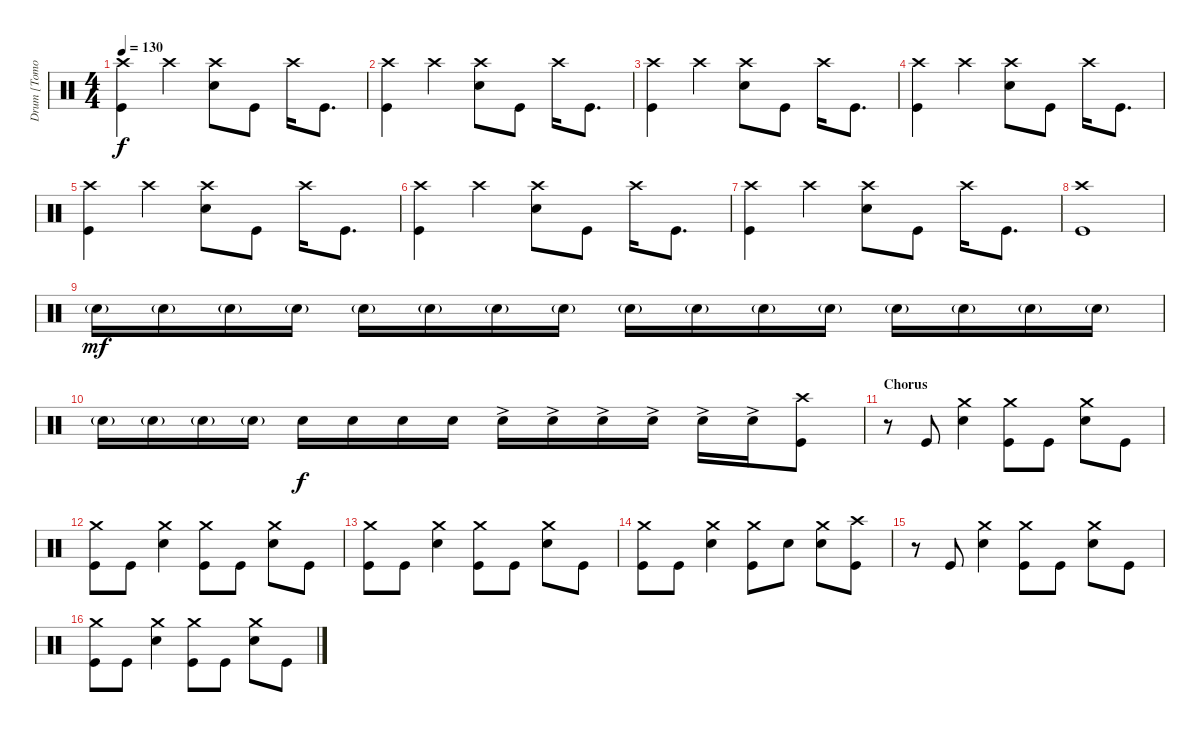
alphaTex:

\track ("Drum [Tomoya]" "Drum [Tomo") {instrument percussion}
\staff {score}
\articulation defaults
\ts (4 4)
\tempo 130
\clef neutral
\ks c
("Crash high (hit)" "Kick (hit)").4{dy f} "Crash high (hit)".4 ("Crash high (hit)" "Snare (hit) 2").8 "Kick (hit)".8 "Crash high (hit)".16 "Kick (hit)".8{d} |
("Crash high (hit)" "Kick (hit)").4 "Crash high (hit)".4 ("Crash high (hit)" "Snare (hit) 2").8 "Kick (hit)".8 "Crash high (hit)".16 "Kick (hit)".8{d} |
("Crash high (hit)" "Kick (hit)").4 "Crash high (hit)".4 ("Crash high (hit)" "Snare (hit) 2").8 "Kick (hit)".8 "Crash high (hit)".16 "Kick (hit)".8{d} |
("Crash high (hit)" "Kick (hit)").4 "Crash high (hit)".4 ("Crash high (hit)" "Snare (hit) 2").8 "Kick (hit)".8 "Crash high (hit)".16 "Kick (hit)".8{d} |
("Crash high (hit)" "Kick (hit)").4 "Crash high (hit)".4 ("Crash high (hit)" "Snare (hit) 2").8 "Kick (hit)".8 "Crash high (hit)".16 "Kick (hit)".8{d} |
("Crash high (hit)" "Kick (hit)").4 "Crash high (hit)".4 ("Crash high (hit)" "Snare (hit) 2").8 "Kick (hit)".8 "Crash high (hit)".16 "Kick (hit)".8{d} |
("Crash high (hit)" "Kick (hit)").4 "Crash high (hit)".4 ("Crash high (hit)" "Snare (hit) 2").8 "Kick (hit)".8 "Crash high (hit)".16 "Kick (hit)".8{d} |
("Crash high (hit)" "Kick (hit)").1 |
"Snare (hit) 2"{g}.16{dy mf} "Snare (hit) 2"{g}.16 "Snare (hit) 2"{g}.16 "Snare (hit) 2"{g}.16 "Snare (hit) 2"{g}.16 "Snare (hit) 2"{g}.16 "Snare (hit) 2"{g}.16 "Snare (hit) 2"{g}.16 "Snare (hit) 2"{g}.16 "Snare (hit) 2"{g}.16 "Snare (hit) 2"{g}.16 "Snare (hit) 2"{g}.16 "Snare (hit) 2"{g}.16 "Snare (hit) 2"{g}.16 "Snare (hit) 2"{g}.16 "Snare (hit) 2"{g}.16 |
"Snare (hit) 2"{g}.16 "Snare (hit) 2"{g}.16 "Snare (hit) 2"{g}.16 "Snare (hit) 2"{g}.16 "Snare (hit) 2".16{dy f} "Snare (hit) 2".16 "Snare (hit) 2".16 "Snare (hit) 2".16 "Snare (hit) 2"{ac}.16 "Snare (hit) 2"{ac}.16 "Snare (hit) 2"{ac}.16 "Snare (hit) 2"{ac}.16 "Snare (hit) 2"{ac}.16 "Snare (hit) 2"{ac}.16 ("Crash high (hit)" "Kick (hit)").8 |
\section ("" "Chorus")
r.8 "Kick (hit)".8 ("Crash medium (hit)" "Snare (hit) 2").4 ("Crash medium (hit)" "Kick (hit)").8 "Kick (hit)".8 ("Snare (hit) 2" "Crash medium (hit)").8 "Kick (hit)".8 |
("Crash medium (hit)" "Kick (hit)").8 "Kick (hit)".8 ("Crash medium (hit)" "Snare (hit) 2").4 ("Crash medium (hit)" "Kick (hit)").8 "Kick (hit)".8 ("Snare (hit) 2" "Crash medium (hit)").8 "Kick (hit)".8 |
("Crash medium (hit)" "Kick (hit)").8 "Kick (hit)".8 ("Crash medium (hit)" "Snare (hit) 2").4 ("Crash medium (hit)" "Kick (hit)").8 "Kick (hit)".8 ("Snare (hit) 2" "Crash medium (hit)").8 "Kick (hit)".8 |
("Crash medium (hit)" "Kick (hit)").8 "Kick (hit)".8 ("Crash medium (hit)" "Snare (hit) 2").4 ("Crash medium (hit)" "Kick (hit)").8 "Snare (hit) 2".8 ("Snare (hit) 2" "Crash medium (hit)").8 ("Crash high (hit)" "Kick (hit)").8 |
r.8 "Kick (hit)".8 ("Crash medium (hit)" "Snare (hit) 2").4 ("Crash medium (hit)" "Kick (hit)").8 "Kick (hit)".8 ("Snare (hit) 2" "Crash medium (hit)").8 "Kick (hit)".8 |
("Crash medium (hit)" "Kick (hit)").8 "Kick (hit)".8 ("Crash medium (hit)" "Snare (hit) 2").4 ("Crash medium (hit)" "Kick (hit)").8 "Kick (hit)".8 ("Snare (hit) 2" "Crash medium (hit)").8 "Kick (hit)".8
